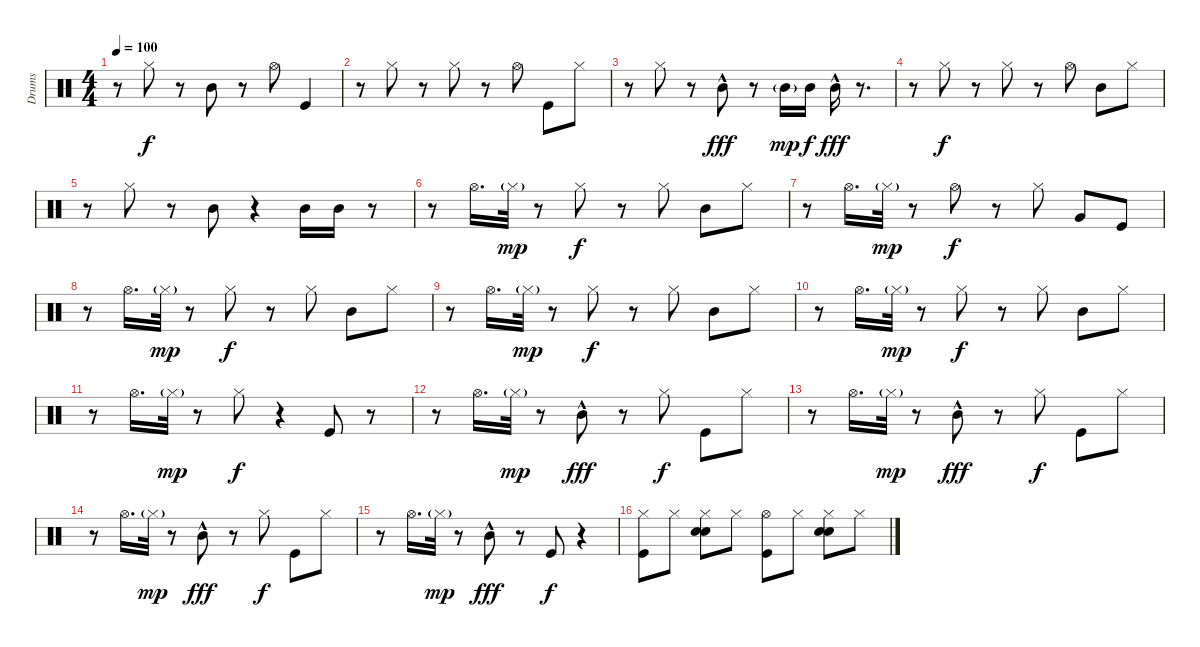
\track ("Drums" "Drums") {instrument percussion}
\staff {score}
\articulation defaults
\ts (4 4)
\tempo 100
\clef neutral
\ks c
r.8{dy f} "Hi-Hat (closed)".8 r.8 "Mid Tom (hit)".8 r.8 "Hi-Hat (open)".8 "Kick (hit)".4 |
r.8 "Hi-Hat (closed)".8 r.8 "Hi-Hat (closed)".8 r.8 "Hi-Hat (open)".8 "Kick (hit)".8 "Hi-Hat (closed)".8 |
r.8 "Hi-Hat (closed)".8 r.8 "Mid Tom (hit)"{hac}.8{dy fff} r.8 "Mid Tom (hit)"{g}.16{dy mp} "Mid Tom (hit)".16{dy f} "Mid Tom (hit)"{hac}.16{dy fff} r.8{d} |
r.8 "Hi-Hat (closed)".8{dy f} r.8 "Hi-Hat (closed)".8 r.8 "Hi-Hat (open)".8 "Mid Tom (hit)".8 "Hi-Hat (closed)".8 |
r.8 "Hi-Hat (closed)".8 r.8 "Mid Tom (hit)".8 r.4 "Mid Tom (hit)".16 "Mid Tom (hit)".16 r.8 |
r.8 "Hi-Hat (open)".16{d} "Hi-Hat (closed)"{g}.32{dy mp} r.8 "Hi-Hat (closed)".8{dy f} r.8 "Hi-Hat (closed)".8 "Mid Tom (hit)".8 "Hi-Hat (closed)".8 |
r.8 "Hi-Hat (open)".16{d} "Hi-Hat (closed)"{g}.32{dy mp} r.8 "Hi-Hat (open)".8{dy f} r.8 "Hi-Hat (closed)".8 "Very Low Tom (hit)".8 "Kick (hit)".8 |
r.8 "Hi-Hat (open)".16{d} "Hi-Hat (closed)"{g}.32{dy mp} r.8 "Hi-Hat (closed)".8{dy f} r.8 "Hi-Hat (closed)".8 "Mid Tom (hit)".8 "Hi-Hat (closed)".8 |
r.8 "Hi-Hat (open)".16{d} "Hi-Hat (closed)"{g}.32{dy mp} r.8 "Hi-Hat (closed)".8{dy f} r.8 "Hi-Hat (closed)".8 "Mid Tom (hit)".8 "Hi-Hat (closed)".8 |
r.8 "Hi-Hat (open)".16{d} "Hi-Hat (closed)"{g}.32{dy mp} r.8 "Hi-Hat (closed)".8{dy f} r.8 "Hi-Hat (closed)".8 "Mid Tom (hit)".8 "Hi-Hat (closed)".8 |
r.8 "Hi-Hat (open)".16{d} "Hi-Hat (closed)"{g}.32{dy mp} r.8 "Hi-Hat (closed)".8{dy f} r.4 "Kick (hit)".8 r.8 |
r.8 "Hi-Hat (open)".16{d} "Hi-Hat (closed)"{g}.32{dy mp} r.8 "Mid Tom (hit)"{hac}.8{dy fff} r.8 "Hi-Hat (closed)".8{dy f} "Kick (hit)".8 "Hi-Hat (closed)".8 |
r.8 "Hi-Hat (open)".16{d} "Hi-Hat (closed)"{g}.32{dy mp} r.8 "Mid Tom (hit)"{hac}.8{dy fff} r.8 "Hi-Hat (closed)".8{dy f} "Kick (hit)".8 "Hi-Hat (closed)".8 |
r.8 "Hi-Hat (open)".16{d} "Hi-Hat (closed)"{g}.32{dy mp} r.8 "Mid Tom (hit)"{hac}.8{dy fff} r.8 "Hi-Hat (closed)".8{dy f} "Kick (hit)".8 "Hi-Hat (closed)".8 |
r.8 "Hi-Hat (open)".16{d} "Hi-Hat (closed)"{g}.32{dy mp} r.8 "Mid Tom (hit)"{hac}.8{dy fff} r.8 "Kick (hit)".8{dy f} r.4 |
("Hi-Hat (closed)" "Kick (hit)").8{volume 12} "Hi-Hat (closed)".8 ("Hi-Hat (closed)" "Hand Clap (hit)" "Snare (hit) 2").8 "Hi-Hat (closed)".8 ("Hi-Hat (open)" "Kick (hit)").8 "Hi-Hat (closed)".8 ("Hi-Hat (closed)" "Hand Clap (hit)" "Snare (hit) 2").8 "Hi-Hat (closed)".8
